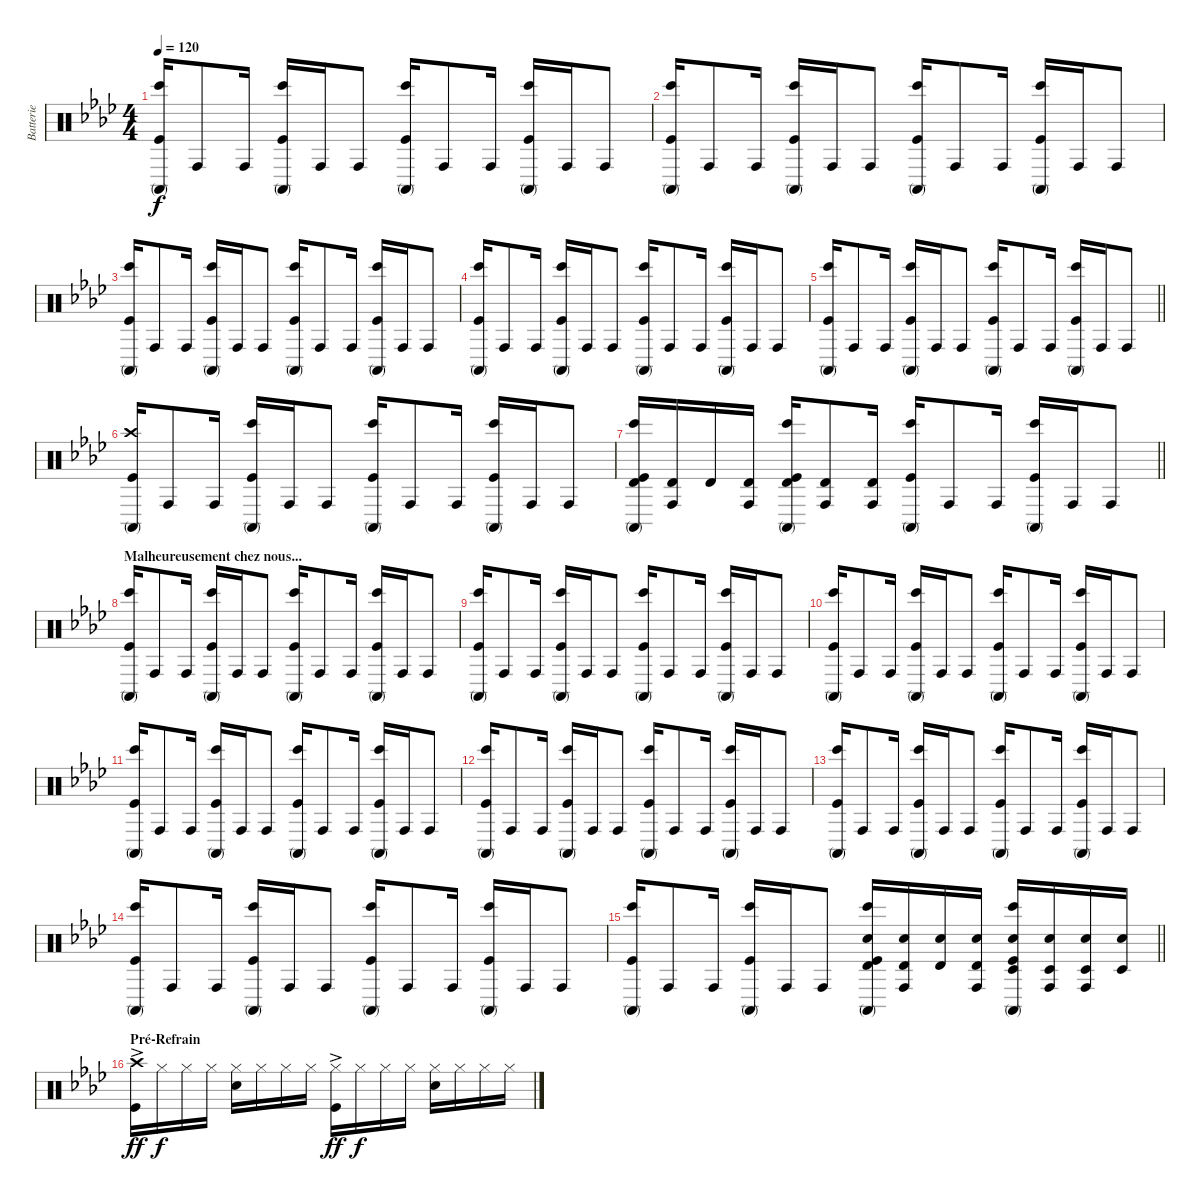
\track ("Batterie" "Batterie") {instrument percussion}
\staff {score}
\articulation defaults
\ts (4 4)
\tempo 120
\clef neutral
\ks fminor
("Bongo High (hit)" "Conga high (mute)" "Kick (hit)").16{dy f} "Conga high (hit)".8 "Conga high (hit)".16 ("Bongo High (hit)" "Conga high (mute)" "Kick (hit)").16 "Conga high (hit)".16 "Conga high (hit)".8 ("Bongo High (hit)" "Conga high (mute)" "Kick (hit)").16 "Conga high (hit)".8 "Conga high (hit)".16 ("Bongo High (hit)" "Conga high (mute)" "Kick (hit)").16 "Conga high (hit)".16 "Conga high (hit)".8 |
("Bongo High (hit)" "Conga high (mute)" "Kick (hit)").16 "Conga high (hit)".8 "Conga high (hit)".16 ("Bongo High (hit)" "Conga high (mute)" "Kick (hit)").16 "Conga high (hit)".16 "Conga high (hit)".8 ("Bongo High (hit)" "Conga high (mute)" "Kick (hit)").16 "Conga high (hit)".8 "Conga high (hit)".16 ("Bongo High (hit)" "Conga high (mute)" "Kick (hit)").16 "Conga high (hit)".16 "Conga high (hit)".8 |
("Bongo High (hit)" "Conga high (mute)" "Kick (hit)").16 "Conga high (hit)".8 "Conga high (hit)".16 ("Bongo High (hit)" "Conga high (mute)" "Kick (hit)").16 "Conga high (hit)".16 "Conga high (hit)".8 ("Bongo High (hit)" "Conga high (mute)" "Kick (hit)").16 "Conga high (hit)".8 "Conga high (hit)".16 ("Bongo High (hit)" "Conga high (mute)" "Kick (hit)").16 "Conga high (hit)".16 "Conga high (hit)".8 |
("Bongo High (hit)" "Conga high (mute)" "Kick (hit)").16 "Conga high (hit)".8 "Conga high (hit)".16 ("Bongo High (hit)" "Conga high (mute)" "Kick (hit)").16 "Conga high (hit)".16 "Conga high (hit)".8 ("Bongo High (hit)" "Conga high (mute)" "Kick (hit)").16 "Conga high (hit)".8 "Conga high (hit)".16 ("Bongo High (hit)" "Conga high (mute)" "Kick (hit)").16 "Conga high (hit)".16 "Conga high (hit)".8 |
\barLineRight lightlight
("Bongo High (hit)" "Conga high (mute)" "Kick (hit)").16 "Conga high (hit)".8 "Conga high (hit)".16 ("Bongo High (hit)" "Conga high (mute)" "Kick (hit)").16 "Conga high (hit)".16 "Conga high (hit)".8 ("Bongo High (hit)" "Conga high (mute)" "Kick (hit)").16 "Conga high (hit)".8 "Conga high (hit)".16 ("Bongo High (hit)" "Conga high (mute)" "Kick (hit)").16 "Conga high (hit)".16 "Conga high (hit)".8 |
("Crash high (hit)" "Conga high (mute)" "Kick (hit)").16 "Conga high (hit)".8 "Conga high (hit)".16 ("Bongo High (hit)" "Conga high (mute)" "Kick (hit)").16 "Conga high (hit)".16 "Conga high (hit)".8 ("Bongo High (hit)" "Conga high (mute)" "Kick (hit)").16 "Conga high (hit)".8 "Conga high (hit)".16 ("Bongo High (hit)" "Conga high (mute)" "Kick (hit)").16 "Conga high (hit)".16 "Conga high (hit)".8 |
\barLineRight lightlight
("Bongo High (hit)" "Conga high (mute)" "Timbale high (hit)" "Kick (hit)").16 ("Conga high (hit)" "Timbale high (hit)").16 "Timbale high (hit)".16 ("Conga high (hit)" "Timbale high (hit)").16 ("Bongo High (hit)" "Conga high (mute)" "Timbale high (hit)" "Kick (hit)").16 ("Conga high (hit)" "Timbale high (hit)").8 ("Conga high (hit)" "Timbale high (hit)").16 ("Bongo High (hit)" "Conga high (mute)" "Kick (hit)").16 "Conga high (hit)".8 "Conga high (hit)".16 ("Bongo High (hit)" "Conga high (mute)" "Kick (hit)").16 "Conga high (hit)".16 "Conga high (hit)".8 |
\section ("" "Malheureusement chez nous...")
("Bongo High (hit)" "Conga high (mute)" "Kick (hit)").16 "Conga high (hit)".8 "Conga high (hit)".16 ("Bongo High (hit)" "Conga high (mute)" "Kick (hit)").16 "Conga high (hit)".16 "Conga high (hit)".8 ("Bongo High (hit)" "Conga high (mute)" "Kick (hit)").16 "Conga high (hit)".8 "Conga high (hit)".16 ("Bongo High (hit)" "Conga high (mute)" "Kick (hit)").16 "Conga high (hit)".16 "Conga high (hit)".8 |
("Bongo High (hit)" "Conga high (mute)" "Kick (hit)").16 "Conga high (hit)".8 "Conga high (hit)".16 ("Bongo High (hit)" "Conga high (mute)" "Kick (hit)").16 "Conga high (hit)".16 "Conga high (hit)".8 ("Bongo High (hit)" "Conga high (mute)" "Kick (hit)").16 "Conga high (hit)".8 "Conga high (hit)".16 ("Bongo High (hit)" "Conga high (mute)" "Kick (hit)").16 "Conga high (hit)".16 "Conga high (hit)".8 |
("Bongo High (hit)" "Conga high (mute)" "Kick (hit)").16 "Conga high (hit)".8 "Conga high (hit)".16 ("Bongo High (hit)" "Conga high (mute)" "Kick (hit)").16 "Conga high (hit)".16 "Conga high (hit)".8 ("Bongo High (hit)" "Conga high (mute)" "Kick (hit)").16 "Conga high (hit)".8 "Conga high (hit)".16 ("Bongo High (hit)" "Conga high (mute)" "Kick (hit)").16 "Conga high (hit)".16 "Conga high (hit)".8 |
("Bongo High (hit)" "Conga high (mute)" "Kick (hit)").16 "Conga high (hit)".8 "Conga high (hit)".16 ("Bongo High (hit)" "Conga high (mute)" "Kick (hit)").16 "Conga high (hit)".16 "Conga high (hit)".8 ("Bongo High (hit)" "Conga high (mute)" "Kick (hit)").16 "Conga high (hit)".8 "Conga high (hit)".16 ("Bongo High (hit)" "Conga high (mute)" "Kick (hit)").16 "Conga high (hit)".16 "Conga high (hit)".8 |
("Bongo High (hit)" "Conga high (mute)" "Kick (hit)").16 "Conga high (hit)".8 "Conga high (hit)".16 ("Bongo High (hit)" "Conga high (mute)" "Kick (hit)").16 "Conga high (hit)".16 "Conga high (hit)".8 ("Bongo High (hit)" "Conga high (mute)" "Kick (hit)").16 "Conga high (hit)".8 "Conga high (hit)".16 ("Bongo High (hit)" "Conga high (mute)" "Kick (hit)").16 "Conga high (hit)".16 "Conga high (hit)".8 |
("Bongo High (hit)" "Conga high (mute)" "Kick (hit)").16 "Conga high (hit)".8 "Conga high (hit)".16 ("Bongo High (hit)" "Conga high (mute)" "Kick (hit)").16 "Conga high (hit)".16 "Conga high (hit)".8 ("Bongo High (hit)" "Conga high (mute)" "Kick (hit)").16 "Conga high (hit)".8 "Conga high (hit)".16 ("Bongo High (hit)" "Conga high (mute)" "Kick (hit)").16 "Conga high (hit)".16 "Conga high (hit)".8 |
("Bongo High (hit)" "Conga high (mute)" "Kick (hit)").16 "Conga high (hit)".8 "Conga high (hit)".16 ("Bongo High (hit)" "Conga high (mute)" "Kick (hit)").16 "Conga high (hit)".16 "Conga high (hit)".8 ("Bongo High (hit)" "Conga high (mute)" "Kick (hit)").16 "Conga high (hit)".8 "Conga high (hit)".16 ("Bongo High (hit)" "Conga high (mute)" "Kick (hit)").16 "Conga high (hit)".16 "Conga high (hit)".8 |
\barLineRight lightlight
("Bongo High (hit)" "Conga high (mute)" "Kick (hit)").16 "Conga high (hit)".8 "Conga high (hit)".16 ("Bongo High (hit)" "Conga high (mute)" "Kick (hit)").16 "Conga high (hit)".16 "Conga high (hit)".8 ("Bongo High (hit)" "Conga high (mute)" "Snare (hit) 2" "Timbale high (hit)" "Kick (hit)").16 ("Conga high (hit)" "Snare (hit) 2" "Timbale high (hit)").16 ("Snare (hit) 2" "Timbale high (hit)").16 ("Conga high (hit)" "Snare (hit) 2" "Timbale high (hit)").16 ("Bongo High (hit)" "Conga high (mute)" "Snare (hit) 2" "Timbale low (hit)" "Kick (hit)").16 ("Conga high (hit)" "Snare (hit) 2" "Timbale low (hit)").16 ("Conga high (hit)" "Snare (hit) 2" "Timbale low (hit)").16 ("Snare (hit) 2" "Timbale low (hit)").16 |
\section ("" "Pré-Refrain")
("Crash high (hit)" "Kick (hit)"{ac}).16{dy ff} "Hi-Hat (closed)".16{dy f} "Hi-Hat (closed)".16 "Hi-Hat (closed)".16 ("Hi-Hat (closed)" "Snare (hit) 2").16 "Hi-Hat (closed)".16 "Hi-Hat (closed)".16 "Hi-Hat (closed)".16 ("Hi-Hat (closed)" "Kick (hit)"{ac}).16{dy ff} "Hi-Hat (closed)".16{dy f} "Hi-Hat (closed)".16 "Hi-Hat (closed)".16 ("Hi-Hat (closed)" "Snare (hit) 2").16 "Hi-Hat (closed)".16 "Hi-Hat (closed)".16 "Hi-Hat (closed)".16
